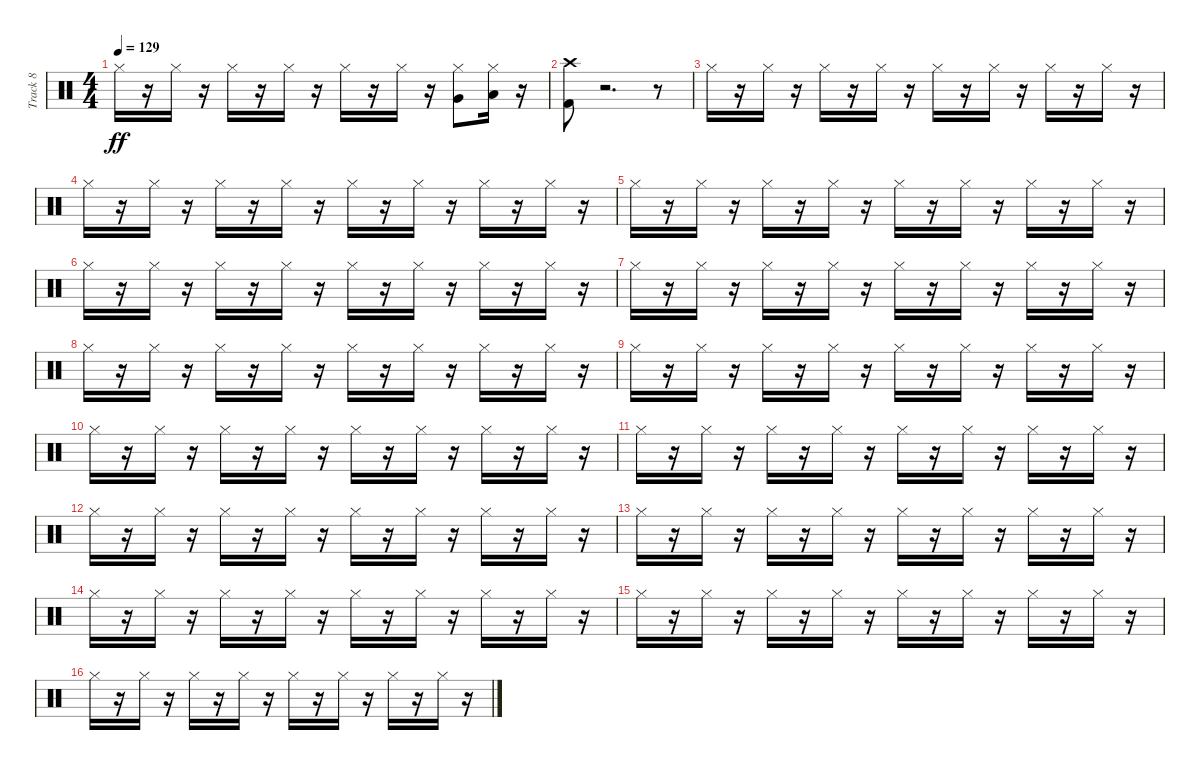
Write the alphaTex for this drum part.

\track ("Track 8" "Track 8") {instrument percussion}
\staff {score}
\articulation defaults
\ts (4 4)
\tempo 129
\clef neutral
\ks c "Hi-Hat (closed)".16{dy ff}
r.16 "Hi-Hat (closed)".16 r.16 "Hi-Hat (closed)".16 r.16 "Hi-Hat (closed)".16 r.16 "Hi-Hat (closed)".16 r.16 "Hi-Hat (closed)".16 r.16 ("Hi-Hat (closed)" "Very Low Tom (hit)").8 ("Hi-Hat (closed)" "Low Floor Tom (hit)").16 r.16 |
("Kick (hit) 2" "Crash high (hit)").8 r.2{d} r.8 |
"Hi-Hat (closed)".16 r.16 "Hi-Hat (closed)".16 r.16 "Hi-Hat (closed)".16 r.16 "Hi-Hat (closed)".16 r.16 "Hi-Hat (closed)".16 r.16 "Hi-Hat (closed)".16 r.16 "Hi-Hat (closed)".16 r.16 "Hi-Hat (closed)".16 r.16 |
"Hi-Hat (closed)".16 r.16 "Hi-Hat (closed)".16 r.16 "Hi-Hat (closed)".16 r.16 "Hi-Hat (closed)".16 r.16 "Hi-Hat (closed)".16 r.16 "Hi-Hat (closed)".16 r.16 "Hi-Hat (closed)".16 r.16 "Hi-Hat (closed)".16 r.16 |
"Hi-Hat (closed)".16 r.16 "Hi-Hat (closed)".16 r.16 "Hi-Hat (closed)".16 r.16 "Hi-Hat (closed)".16 r.16 "Hi-Hat (closed)".16 r.16 "Hi-Hat (closed)".16 r.16 "Hi-Hat (closed)".16 r.16 "Hi-Hat (closed)".16 r.16 |
"Hi-Hat (closed)".16 r.16 "Hi-Hat (closed)".16 r.16 "Hi-Hat (closed)".16 r.16 "Hi-Hat (closed)".16 r.16 "Hi-Hat (closed)".16 r.16 "Hi-Hat (closed)".16 r.16 "Hi-Hat (closed)".16 r.16 "Hi-Hat (closed)".16 r.16 |
"Hi-Hat (closed)".16 r.16 "Hi-Hat (closed)".16 r.16 "Hi-Hat (closed)".16 r.16 "Hi-Hat (closed)".16 r.16 "Hi-Hat (closed)".16 r.16 "Hi-Hat (closed)".16 r.16 "Hi-Hat (closed)".16 r.16 "Hi-Hat (closed)".16 r.16 |
"Hi-Hat (closed)".16 r.16 "Hi-Hat (closed)".16 r.16 "Hi-Hat (closed)".16 r.16 "Hi-Hat (closed)".16 r.16 "Hi-Hat (closed)".16 r.16 "Hi-Hat (closed)".16 r.16 "Hi-Hat (closed)".16 r.16 "Hi-Hat (closed)".16 r.16 |
"Hi-Hat (closed)".16 r.16 "Hi-Hat (closed)".16 r.16 "Hi-Hat (closed)".16 r.16 "Hi-Hat (closed)".16 r.16 "Hi-Hat (closed)".16 r.16 "Hi-Hat (closed)".16 r.16 "Hi-Hat (closed)".16 r.16 "Hi-Hat (closed)".16 r.16 |
"Hi-Hat (closed)".16 r.16 "Hi-Hat (closed)".16 r.16 "Hi-Hat (closed)".16 r.16 "Hi-Hat (closed)".16 r.16 "Hi-Hat (closed)".16 r.16 "Hi-Hat (closed)".16 r.16 "Hi-Hat (closed)".16 r.16 "Hi-Hat (closed)".16 r.16 |
"Hi-Hat (closed)".16 r.16 "Hi-Hat (closed)".16 r.16 "Hi-Hat (closed)".16 r.16 "Hi-Hat (closed)".16 r.16 "Hi-Hat (closed)".16 r.16 "Hi-Hat (closed)".16 r.16 "Hi-Hat (closed)".16 r.16 "Hi-Hat (closed)".16 r.16 |
"Hi-Hat (closed)".16 r.16 "Hi-Hat (closed)".16 r.16 "Hi-Hat (closed)".16 r.16 "Hi-Hat (closed)".16 r.16 "Hi-Hat (closed)".16 r.16 "Hi-Hat (closed)".16 r.16 "Hi-Hat (closed)".16 r.16 "Hi-Hat (closed)".16 r.16 |
"Hi-Hat (closed)".16 r.16 "Hi-Hat (closed)".16 r.16 "Hi-Hat (closed)".16 r.16 "Hi-Hat (closed)".16 r.16 "Hi-Hat (closed)".16 r.16 "Hi-Hat (closed)".16 r.16 "Hi-Hat (closed)".16 r.16 "Hi-Hat (closed)".16 r.16 |
"Hi-Hat (closed)".16 r.16 "Hi-Hat (closed)".16 r.16 "Hi-Hat (closed)".16 r.16 "Hi-Hat (closed)".16 r.16 "Hi-Hat (closed)".16 r.16 "Hi-Hat (closed)".16 r.16 "Hi-Hat (closed)".16 r.16 "Hi-Hat (closed)".16 r.16 |
"Hi-Hat (closed)".16 r.16 "Hi-Hat (closed)".16 r.16 "Hi-Hat (closed)".16 r.16 "Hi-Hat (closed)".16 r.16 "Hi-Hat (closed)".16 r.16 "Hi-Hat (closed)".16 r.16 "Hi-Hat (closed)".16 r.16 "Hi-Hat (closed)".16 r.16 |
"Hi-Hat (closed)".16 r.16 "Hi-Hat (closed)".16 r.16 "Hi-Hat (closed)".16 r.16 "Hi-Hat (closed)".16 r.16 "Hi-Hat (closed)".16 r.16 "Hi-Hat (closed)".16 r.16 "Hi-Hat (closed)".16 r.16 "Hi-Hat (closed)".16 r.16
